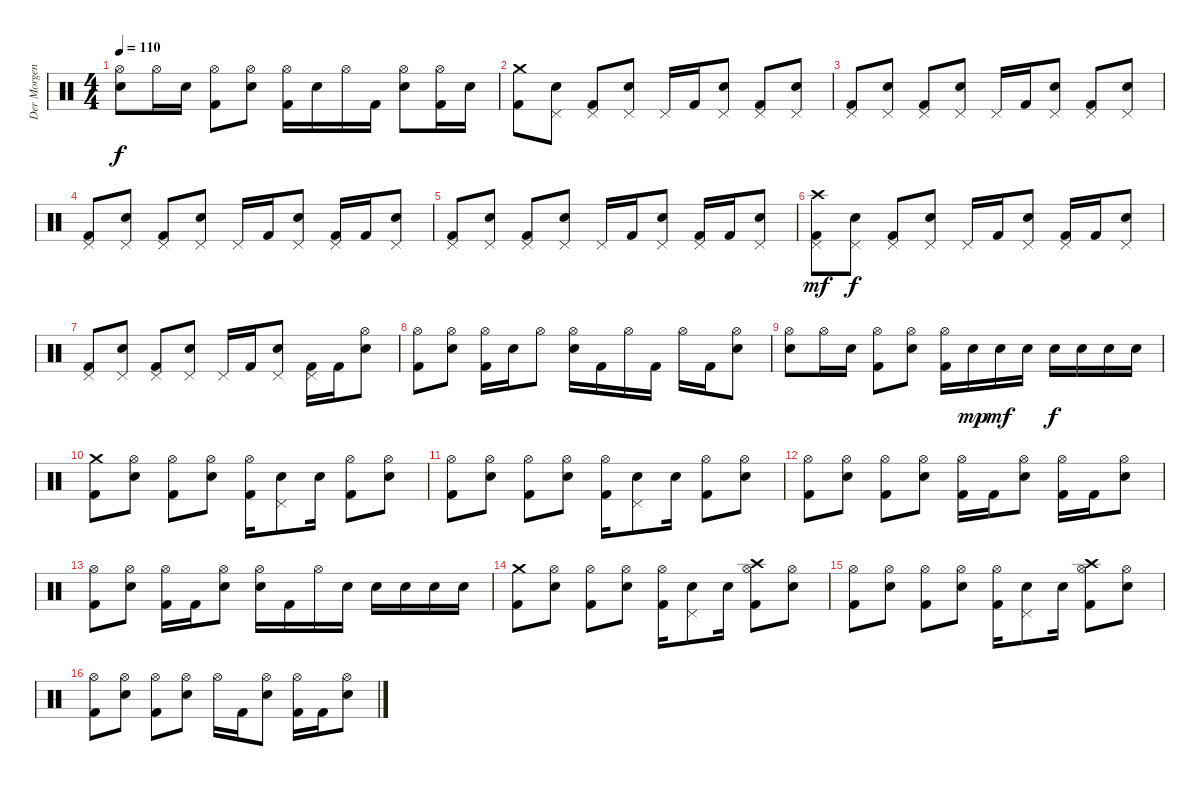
\track ("Der Morgenstern" "Der Morgen") {instrument percussion}
\staff {score}
\articulation defaults
\ts (4 4)
\tempo 110
\clef neutral
\ks c
("Hi-Hat (open)" "Electric Snare (hit)").8{dy f} "Hi-Hat (open)".16 "Electric Snare (hit)".16 ("Hi-Hat (open)" "Kick (hit) 2").8 ("Hi-Hat (open)" "Electric Snare (hit)").8 ("Hi-Hat (open)" "Kick (hit) 2").16 "Electric Snare (hit)".16 "Hi-Hat (open)".16 "Kick (hit) 2".16 ("Hi-Hat (open)" "Electric Snare (hit)").8 ("Hi-Hat (open)" "Kick (hit) 2").16 "Electric Snare (hit)".16 |
("Crash medium (hit)" "Kick (hit) 2").8 ("Pedal Hi-Hat (hit)" "Electric Snare (hit)").8 ("Pedal Hi-Hat (hit)" "Kick (hit) 2").8 ("Pedal Hi-Hat (hit)" "Electric Snare (hit)").8 "Pedal Hi-Hat (hit)".16 "Kick (hit) 2".16 ("Pedal Hi-Hat (hit)" "Electric Snare (hit)").8 ("Pedal Hi-Hat (hit)" "Kick (hit) 2").8 ("Pedal Hi-Hat (hit)" "Electric Snare (hit)").8 |
("Pedal Hi-Hat (hit)" "Kick (hit) 2").8 ("Pedal Hi-Hat (hit)" "Electric Snare (hit)").8 ("Pedal Hi-Hat (hit)" "Kick (hit) 2").8 ("Pedal Hi-Hat (hit)" "Electric Snare (hit)").8 "Pedal Hi-Hat (hit)".16 "Kick (hit) 2".16 ("Pedal Hi-Hat (hit)" "Electric Snare (hit)").8 ("Pedal Hi-Hat (hit)" "Kick (hit) 2").8 ("Pedal Hi-Hat (hit)" "Electric Snare (hit)").8 |
("Pedal Hi-Hat (hit)" "Kick (hit) 2").8 ("Pedal Hi-Hat (hit)" "Electric Snare (hit)").8 ("Pedal Hi-Hat (hit)" "Kick (hit) 2").8 ("Pedal Hi-Hat (hit)" "Electric Snare (hit)").8 "Pedal Hi-Hat (hit)".16 "Kick (hit) 2".16 ("Pedal Hi-Hat (hit)" "Electric Snare (hit)").8 ("Pedal Hi-Hat (hit)" "Kick (hit) 2").16 "Kick (hit) 2".16 ("Pedal Hi-Hat (hit)" "Electric Snare (hit)").8 |
("Pedal Hi-Hat (hit)" "Kick (hit) 2").8 ("Pedal Hi-Hat (hit)" "Electric Snare (hit)").8 ("Pedal Hi-Hat (hit)" "Kick (hit) 2").8 ("Pedal Hi-Hat (hit)" "Electric Snare (hit)").8 "Pedal Hi-Hat (hit)".16 "Kick (hit) 2".16 ("Pedal Hi-Hat (hit)" "Electric Snare (hit)").8 ("Pedal Hi-Hat (hit)" "Kick (hit) 2").16 "Kick (hit) 2".16 ("Pedal Hi-Hat (hit)" "Electric Snare (hit)").8 |
("Crash high (hit)" "Pedal Hi-Hat (hit)" "Kick (hit) 2").8{dy mf} ("Pedal Hi-Hat (hit)" "Electric Snare (hit)").8{dy f} ("Pedal Hi-Hat (hit)" "Kick (hit) 2").8 ("Pedal Hi-Hat (hit)" "Electric Snare (hit)").8 "Pedal Hi-Hat (hit)".16 "Kick (hit) 2".16 ("Pedal Hi-Hat (hit)" "Electric Snare (hit)").8 ("Pedal Hi-Hat (hit)" "Kick (hit) 2").16 "Kick (hit) 2".16 ("Pedal Hi-Hat (hit)" "Electric Snare (hit)").8 |
("Pedal Hi-Hat (hit)" "Kick (hit) 2").8 ("Pedal Hi-Hat (hit)" "Electric Snare (hit)").8 ("Pedal Hi-Hat (hit)" "Kick (hit) 2").8 ("Pedal Hi-Hat (hit)" "Electric Snare (hit)").8 "Pedal Hi-Hat (hit)".16 "Kick (hit) 2".16 ("Pedal Hi-Hat (hit)" "Electric Snare (hit)").8 ("Pedal Hi-Hat (hit)" "Kick (hit) 2").16 "Kick (hit) 2".16 ("Hi-Hat (open)" "Electric Snare (hit)").8 |
("Hi-Hat (open)" "Kick (hit) 2").8 ("Hi-Hat (open)" "Electric Snare (hit)").8 ("Hi-Hat (open)" "Kick (hit) 2").16 "Electric Snare (hit)".16 "Hi-Hat (open)".8 ("Hi-Hat (open)" "Electric Snare (hit)").16 "Kick (hit) 2".16 "Hi-Hat (open)".16 "Kick (hit) 2".16 "Hi-Hat (open)".16 "Kick (hit) 2".16 ("Hi-Hat (open)" "Electric Snare (hit)").8 |
("Hi-Hat (open)" "Electric Snare (hit)").8 "Hi-Hat (open)".16 "Electric Snare (hit)".16 ("Hi-Hat (open)" "Kick (hit) 2").8 ("Hi-Hat (open)" "Electric Snare (hit)").8 ("Hi-Hat (open)" "Kick (hit) 2").16 "Electric Snare (hit)".16{dy mp} "Electric Snare (hit)".16{dy mf} "Electric Snare (hit)".16 "Electric Snare (hit)".16{dy f} "Electric Snare (hit)".16 "Electric Snare (hit)".16 "Electric Snare (hit)".16 |
("Crash medium (hit)" "Kick (hit) 2").8 ("Hi-Hat (open)" "Electric Snare (hit)").8 ("Hi-Hat (open)" "Kick (hit) 2").8 ("Hi-Hat (open)" "Electric Snare (hit)").8 ("Hi-Hat (open)" "Kick (hit) 2").16 ("Pedal Hi-Hat (hit)" "Electric Snare (hit)").8 "Electric Snare (hit)".16 ("Hi-Hat (open)" "Kick (hit) 2").8 ("Hi-Hat (open)" "Electric Snare (hit)").8 |
("Hi-Hat (open)" "Kick (hit) 2").8 ("Hi-Hat (open)" "Electric Snare (hit)").8 ("Hi-Hat (open)" "Kick (hit) 2").8 ("Hi-Hat (open)" "Electric Snare (hit)").8 ("Hi-Hat (open)" "Kick (hit) 2").16 ("Pedal Hi-Hat (hit)" "Electric Snare (hit)").8 "Electric Snare (hit)".16 ("Hi-Hat (open)" "Kick (hit) 2").8 ("Hi-Hat (open)" "Electric Snare (hit)").8 |
("Hi-Hat (open)" "Kick (hit) 2").8 ("Hi-Hat (open)" "Electric Snare (hit)").8 ("Hi-Hat (open)" "Kick (hit) 2").8 ("Hi-Hat (open)" "Electric Snare (hit)").8 ("Hi-Hat (open)" "Kick (hit) 2").16 "Kick (hit) 2".16 ("Hi-Hat (open)" "Electric Snare (hit)").8 ("Hi-Hat (open)" "Kick (hit) 2").16 "Kick (hit) 2".16 ("Hi-Hat (open)" "Electric Snare (hit)").8 |
("Hi-Hat (open)" "Kick (hit) 2").8 ("Hi-Hat (open)" "Electric Snare (hit)").8 ("Hi-Hat (open)" "Kick (hit) 2").16 "Kick (hit) 2".16 ("Hi-Hat (open)" "Electric Snare (hit)").8 ("Hi-Hat (open)" "Electric Snare (hit)").16 "Kick (hit) 2".16 "Hi-Hat (open)".16 "Electric Snare (hit)".16 "Electric Snare (hit)".16 "Electric Snare (hit)".16 "Electric Snare (hit)".16 "Electric Snare (hit)".16 |
("Crash medium (hit)" "Kick (hit) 2").8 ("Hi-Hat (open)" "Electric Snare (hit)").8 ("Hi-Hat (open)" "Kick (hit) 2").8 ("Hi-Hat (open)" "Electric Snare (hit)").8 ("Hi-Hat (open)" "Kick (hit) 2").16 ("Pedal Hi-Hat (hit)" "Electric Snare (hit)").8 "Electric Snare (hit)".16 ("Crash high (hit)" "Hi-Hat (open)" "Kick (hit) 2").8 ("Hi-Hat (open)" "Electric Snare (hit)").8 |
("Hi-Hat (open)" "Kick (hit) 2").8 ("Hi-Hat (open)" "Electric Snare (hit)").8 ("Hi-Hat (open)" "Kick (hit) 2").8 ("Hi-Hat (open)" "Electric Snare (hit)").8 ("Hi-Hat (open)" "Kick (hit) 2").16 ("Pedal Hi-Hat (hit)" "Electric Snare (hit)").8 "Electric Snare (hit)".16 ("Crash high (hit)" "Hi-Hat (open)" "Kick (hit) 2").8 ("Hi-Hat (open)" "Electric Snare (hit)").8 |
("Hi-Hat (open)" "Kick (hit) 2").8 ("Hi-Hat (open)" "Electric Snare (hit)").8 ("Hi-Hat (open)" "Kick (hit) 2").8 ("Hi-Hat (open)" "Electric Snare (hit)").8 "Hi-Hat (open)".16 "Kick (hit) 2".16 ("Hi-Hat (open)" "Electric Snare (hit)").8 ("Hi-Hat (open)" "Kick (hit) 2").16 "Kick (hit) 2".16 ("Hi-Hat (open)" "Electric Snare (hit)").8
